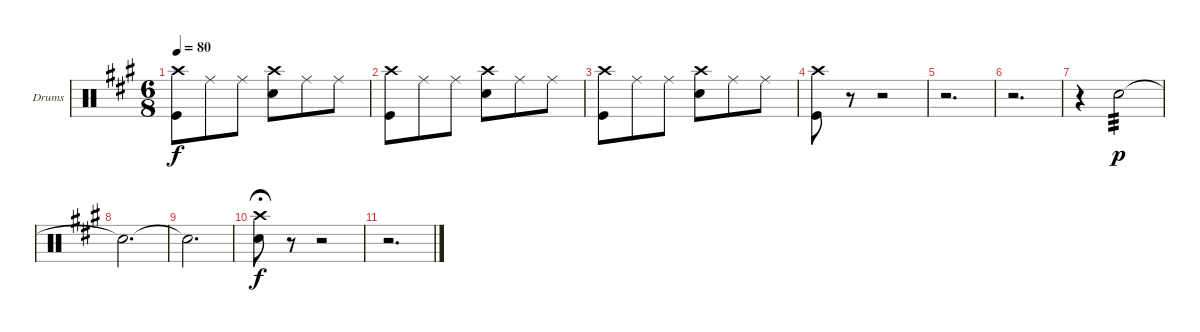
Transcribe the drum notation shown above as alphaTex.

\bracketExtendMode groupsimilarinstruments
\firstSystemTrackNameOrientation horizontal
\otherSystemsTrackNameOrientation horizontal
\track ("Drumkit" "Drums") {instrument percussion}
\staff {score}
\articulation defaults
\ts (6 8)
\tempo 80
\clef neutral
\scale
0.333333
\ks a
("Crash high (hit)" "Kick (hit)").8{dy f} "Ride (middle)".8 "Ride (middle)".8 ("Crash high (hit)" "Snare (hit) 2").8 "Ride (middle)".8 "Ride (middle)".8 |
\scale
0.333333 ("Crash high (hit)" "Kick (hit)").8 "Ride (middle)".8 "Ride (middle)".8 ("Crash high (hit)" "Snare (hit) 2").8 "Ride (middle)".8 "Ride (middle)".8 |
\scale
0.333333 ("Crash high (hit)" "Kick (hit)").8 "Ride (middle)".8 "Ride (middle)".8 ("Crash high (hit)" "Snare (hit) 2").8 "Ride (middle)".8 "Ride (middle)".8 |
\scale
0.333333 ("Crash high (hit)" "Kick (hit)").8 r.8 r.2 |
\scale
0.333333 r.2{d} |
\scale
0.333333 r.2{d} |
\scale
0.333333 r.4 "Snare (hit) 2".2{tp 3 dy p} |
\scale
0.333333 "Snare (hit) 2"{t}.2{d} |
"Snare (hit) 2"{t}.2{d} |
("Snare (hit) 2" "Crash high (hit)").8{dy f fermata (medium 0.6)} r.8 r.2 |
r.2{d}
